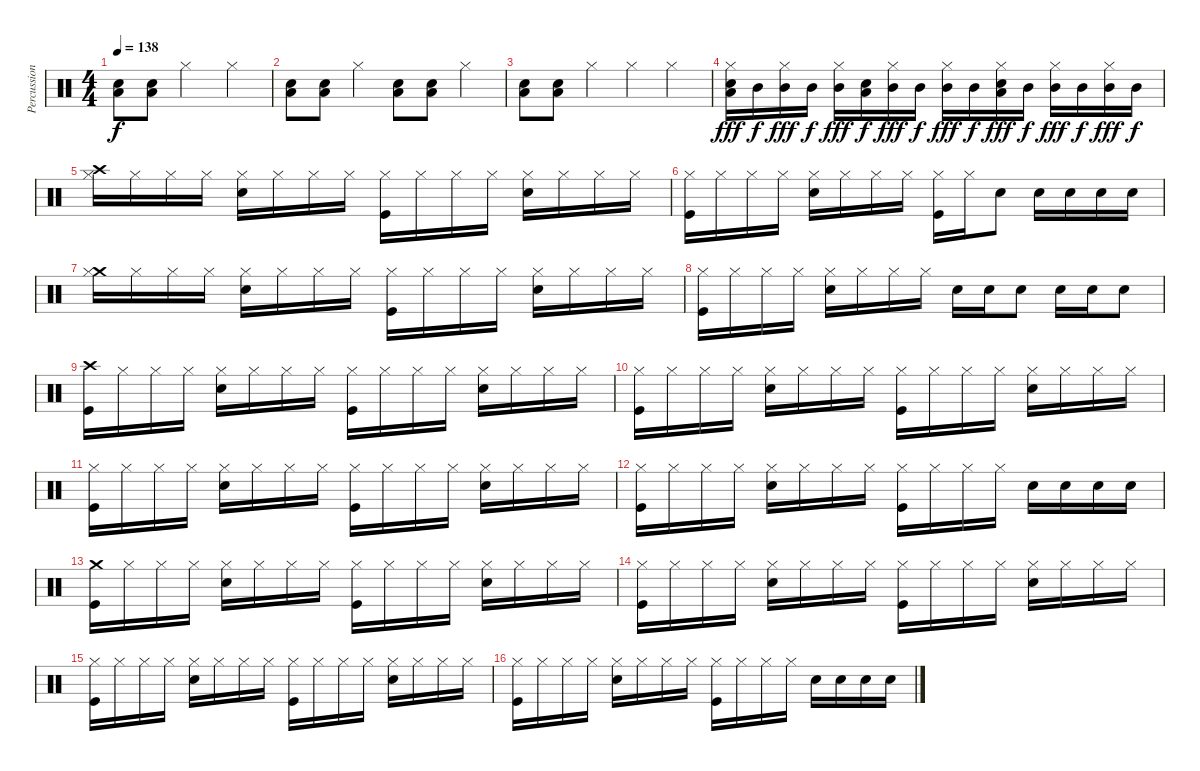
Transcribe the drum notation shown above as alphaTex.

\track ("Percussion" "Percussion") {instrument percussion}
\staff {score}
\articulation defaults
\ts (4 4)
\tempo 138
\clef neutral
\ks c
("Low Floor Tom (hit)" "Snare (hit) 2").8{dy f} ("Low Floor Tom (hit)" "Snare (hit) 2").8 "Hi-Hat (closed)".2 "Hi-Hat (closed)".4 |
("Low Floor Tom (hit)" "Snare (hit) 2").8 ("Low Floor Tom (hit)" "Snare (hit) 2").8 "Hi-Hat (closed)".4 ("Low Floor Tom (hit)" "Snare (hit) 2").8 ("Low Floor Tom (hit)" "Snare (hit) 2").8 "Hi-Hat (closed)".4 |
("Low Floor Tom (hit)" "Snare (hit) 2").8 ("Low Floor Tom (hit)" "Snare (hit) 2").8 "Hi-Hat (closed)".4 "Hi-Hat (closed)".4 "Hi-Hat (closed)".4 |
("Hi-Hat (closed)" "Snare (hit) 2" "Low Floor Tom (hit)").16{dy fff} "Mid Tom (hit)".16{dy f} ("Hi-Hat (closed)" "Mid Tom (hit)").16{dy fff} "Mid Tom (hit)".16{dy f} ("Hi-Hat (closed)" "Mid Tom (hit)").16{dy fff} ("Snare (hit) 2" "Low Floor Tom (hit)").16{dy f} ("Hi-Hat (closed)" "Mid Tom (hit)").16{dy fff} "Mid Tom (hit)".16{dy f} ("Hi-Hat (closed)" "Mid Tom (hit)").16{dy fff} "Mid Tom (hit)".16{dy f} ("Hi-Hat (closed)" "Snare (hit) 2" "Low Floor Tom (hit)").16{dy fff} "Mid Tom (hit)".16{dy f} ("Hi-Hat (closed)" "Mid Tom (hit)").16{dy fff} "Mid Tom (hit)".16{dy f} ("Hi-Hat (closed)" "Mid Tom (hit)").16{dy fff} "Mid Tom (hit)".16{dy f} |
("Crash high (hit)" "Hi-Hat (closed)").16 "Hi-Hat (closed)".16 "Hi-Hat (closed)".16 "Hi-Hat (closed)".16 ("Snare (hit) 2" "Hi-Hat (closed)").16 "Hi-Hat (closed)".16 "Hi-Hat (closed)".16 "Hi-Hat (closed)".16 ("Kick (hit)" "Hi-Hat (closed)").16 "Hi-Hat (closed)".16 "Hi-Hat (closed)".16 "Hi-Hat (closed)".16 ("Snare (hit) 2" "Hi-Hat (closed)").16 "Hi-Hat (closed)".16 "Hi-Hat (closed)".16 "Hi-Hat (closed)".16 |
("Kick (hit)" "Hi-Hat (closed)").16 "Hi-Hat (closed)".16 "Hi-Hat (closed)".16 "Hi-Hat (closed)".16 ("Snare (hit) 2" "Hi-Hat (closed)").16 "Hi-Hat (closed)".16 "Hi-Hat (closed)".16 "Hi-Hat (closed)".16 ("Kick (hit)" "Hi-Hat (closed)").16 "Hi-Hat (closed)".16 "Snare (hit) 2".8 "Snare (hit) 2".16 "Snare (hit) 2".16 "Snare (hit) 2".16 "Snare (hit) 2".16 |
("Crash medium (hit)" "Hi-Hat (closed)").16 "Hi-Hat (closed)".16 "Hi-Hat (closed)".16 "Hi-Hat (closed)".16 ("Snare (hit) 2" "Hi-Hat (closed)").16 "Hi-Hat (closed)".16 "Hi-Hat (closed)".16 "Hi-Hat (closed)".16 ("Kick (hit)" "Hi-Hat (closed)").16 "Hi-Hat (closed)".16 "Hi-Hat (closed)".16 "Hi-Hat (closed)".16 ("Snare (hit) 2" "Hi-Hat (closed)").16 "Hi-Hat (closed)".16 "Hi-Hat (closed)".16 "Hi-Hat (closed)".16 |
("Kick (hit)" "Hi-Hat (closed)").16 "Hi-Hat (closed)".16 "Hi-Hat (closed)".16 "Hi-Hat (closed)".16 ("Snare (hit) 2" "Hi-Hat (closed)").16 "Hi-Hat (closed)".16 "Hi-Hat (closed)".16 "Hi-Hat (closed)".16 "Snare (hit) 2".16 "Snare (hit) 2".16 "Snare (hit) 2".8 "Snare (hit) 2".16 "Snare (hit) 2".16 "Snare (hit) 2".8 |
("Kick (hit)" "Crash high (hit)").16 "Hi-Hat (closed)".16 "Hi-Hat (closed)".16 "Hi-Hat (closed)".16 ("Snare (hit) 2" "Hi-Hat (closed)").16 "Hi-Hat (closed)".16 "Hi-Hat (closed)".16 "Hi-Hat (closed)".16 ("Kick (hit)" "Hi-Hat (closed)").16 "Hi-Hat (closed)".16 "Hi-Hat (closed)".16 "Hi-Hat (closed)".16 ("Snare (hit) 2" "Hi-Hat (closed)").16 "Hi-Hat (closed)".16 "Hi-Hat (closed)".16 "Hi-Hat (closed)".16 |
("Kick (hit)" "Hi-Hat (closed)").16 "Hi-Hat (closed)".16 "Hi-Hat (closed)".16 "Hi-Hat (closed)".16 ("Snare (hit) 2" "Hi-Hat (closed)").16 "Hi-Hat (closed)".16 "Hi-Hat (closed)".16 "Hi-Hat (closed)".16 ("Kick (hit)" "Hi-Hat (closed)").16 "Hi-Hat (closed)".16 "Hi-Hat (closed)".16 "Hi-Hat (closed)".16 ("Snare (hit) 2" "Hi-Hat (closed)").16 "Hi-Hat (closed)".16 "Hi-Hat (closed)".16 "Hi-Hat (closed)".16 |
("Kick (hit)" "Hi-Hat (closed)").16 "Hi-Hat (closed)".16 "Hi-Hat (closed)".16 "Hi-Hat (closed)".16 ("Snare (hit) 2" "Hi-Hat (closed)").16 "Hi-Hat (closed)".16 "Hi-Hat (closed)".16 "Hi-Hat (closed)".16 ("Kick (hit)" "Hi-Hat (closed)").16 "Hi-Hat (closed)".16 "Hi-Hat (closed)".16 "Hi-Hat (closed)".16 ("Snare (hit) 2" "Hi-Hat (closed)").16 "Hi-Hat (closed)".16 "Hi-Hat (closed)".16 "Hi-Hat (closed)".16 |
("Kick (hit)" "Hi-Hat (closed)").16 "Hi-Hat (closed)".16 "Hi-Hat (closed)".16 "Hi-Hat (closed)".16 ("Snare (hit) 2" "Hi-Hat (closed)").16 "Hi-Hat (closed)".16 "Hi-Hat (closed)".16 "Hi-Hat (closed)".16 ("Kick (hit)" "Hi-Hat (closed)").16 "Hi-Hat (closed)".16 "Hi-Hat (closed)".16 "Hi-Hat (closed)".16 "Snare (hit) 2".16 "Snare (hit) 2".16 "Snare (hit) 2".16 "Snare (hit) 2".16 |
("Kick (hit)" "Crash medium (hit)").16 "Hi-Hat (closed)".16 "Hi-Hat (closed)".16 "Hi-Hat (closed)".16 ("Snare (hit) 2" "Hi-Hat (closed)").16 "Hi-Hat (closed)".16 "Hi-Hat (closed)".16 "Hi-Hat (closed)".16 ("Kick (hit)" "Hi-Hat (closed)").16 "Hi-Hat (closed)".16 "Hi-Hat (closed)".16 "Hi-Hat (closed)".16 ("Snare (hit) 2" "Hi-Hat (closed)").16 "Hi-Hat (closed)".16 "Hi-Hat (closed)".16 "Hi-Hat (closed)".16 |
("Kick (hit)" "Hi-Hat (closed)").16 "Hi-Hat (closed)".16 "Hi-Hat (closed)".16 "Hi-Hat (closed)".16 ("Snare (hit) 2" "Hi-Hat (closed)").16 "Hi-Hat (closed)".16 "Hi-Hat (closed)".16 "Hi-Hat (closed)".16 ("Kick (hit)" "Hi-Hat (closed)").16 "Hi-Hat (closed)".16 "Hi-Hat (closed)".16 "Hi-Hat (closed)".16 ("Snare (hit) 2" "Hi-Hat (closed)").16 "Hi-Hat (closed)".16 "Hi-Hat (closed)".16 "Hi-Hat (closed)".16 |
("Kick (hit)" "Hi-Hat (closed)").16 "Hi-Hat (closed)".16 "Hi-Hat (closed)".16 "Hi-Hat (closed)".16 ("Snare (hit) 2" "Hi-Hat (closed)").16 "Hi-Hat (closed)".16 "Hi-Hat (closed)".16 "Hi-Hat (closed)".16 ("Kick (hit)" "Hi-Hat (closed)").16 "Hi-Hat (closed)".16 "Hi-Hat (closed)".16 "Hi-Hat (closed)".16 ("Snare (hit) 2" "Hi-Hat (closed)").16 "Hi-Hat (closed)".16 "Hi-Hat (closed)".16 "Hi-Hat (closed)".16 |
("Kick (hit)" "Hi-Hat (closed)").16 "Hi-Hat (closed)".16 "Hi-Hat (closed)".16 "Hi-Hat (closed)".16 ("Snare (hit) 2" "Hi-Hat (closed)").16 "Hi-Hat (closed)".16 "Hi-Hat (closed)".16 "Hi-Hat (closed)".16 ("Kick (hit)" "Hi-Hat (closed)").16 "Hi-Hat (closed)".16 "Hi-Hat (closed)".16 "Hi-Hat (closed)".16 "Snare (hit) 2".16 "Snare (hit) 2".16 "Snare (hit) 2".16 "Snare (hit) 2".16
